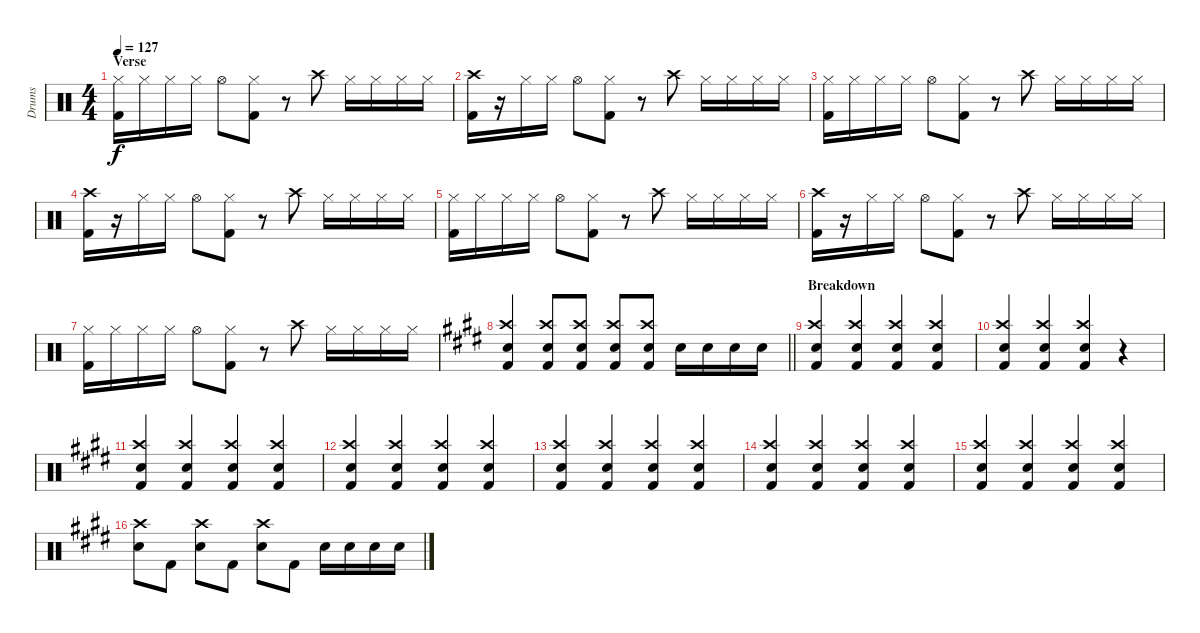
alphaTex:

\track ("Drums" "Drums") {instrument percussion}
\staff {score}
\articulation defaults
\ts (4 4)
\section ("" "Verse")
\tempo 127
\clef neutral
\ks c
("Hi-Hat (closed)" "Kick (hit) 2").16{dy f} "Hi-Hat (closed)".16 "Hi-Hat (closed)".16 "Hi-Hat (closed)".16 "Hi-Hat (open)".8 ("Hi-Hat (closed)" "Kick (hit) 2").8 r.8 "Crash high (hit)".8 "Hi-Hat (closed)".16 "Hi-Hat (closed)".16 "Hi-Hat (closed)".16 "Hi-Hat (closed)".16 |
("Crash high (hit)" "Kick (hit) 2").16 r.16 "Hi-Hat (closed)".16 "Hi-Hat (closed)".16 "Hi-Hat (open)".8 ("Hi-Hat (closed)" "Kick (hit) 2").8 r.8 "Crash high (hit)".8 "Hi-Hat (closed)".16 "Hi-Hat (closed)".16 "Hi-Hat (closed)".16 "Hi-Hat (closed)".16 |
("Hi-Hat (closed)" "Kick (hit) 2").16 "Hi-Hat (closed)".16 "Hi-Hat (closed)".16 "Hi-Hat (closed)".16 "Hi-Hat (open)".8 ("Hi-Hat (closed)" "Kick (hit) 2").8 r.8 "Crash high (hit)".8 "Hi-Hat (closed)".16 "Hi-Hat (closed)".16 "Hi-Hat (closed)".16 "Hi-Hat (closed)".16 |
("Crash high (hit)" "Kick (hit) 2").16 r.16 "Hi-Hat (closed)".16 "Hi-Hat (closed)".16 "Hi-Hat (open)".8 ("Hi-Hat (closed)" "Kick (hit) 2").8 r.8 "Crash high (hit)".8 "Hi-Hat (closed)".16 "Hi-Hat (closed)".16 "Hi-Hat (closed)".16 "Hi-Hat (closed)".16 |
("Hi-Hat (closed)" "Kick (hit) 2").16 "Hi-Hat (closed)".16 "Hi-Hat (closed)".16 "Hi-Hat (closed)".16 "Hi-Hat (open)".8 ("Hi-Hat (closed)" "Kick (hit) 2").8 r.8 "Crash high (hit)".8 "Hi-Hat (closed)".16 "Hi-Hat (closed)".16 "Hi-Hat (closed)".16 "Hi-Hat (closed)".16 |
("Crash high (hit)" "Kick (hit) 2").16 r.16 "Hi-Hat (closed)".16 "Hi-Hat (closed)".16 "Hi-Hat (open)".8 ("Hi-Hat (closed)" "Kick (hit) 2").8 r.8 "Crash high (hit)".8 "Hi-Hat (closed)".16 "Hi-Hat (closed)".16 "Hi-Hat (closed)".16 "Hi-Hat (closed)".16 |
("Hi-Hat (closed)" "Kick (hit) 2").16 "Hi-Hat (closed)".16 "Hi-Hat (closed)".16 "Hi-Hat (closed)".16 "Hi-Hat (open)".8 ("Hi-Hat (closed)" "Kick (hit) 2").8 r.8 "Crash high (hit)".8 "Hi-Hat (closed)".16 "Hi-Hat (closed)".16 "Hi-Hat (closed)".16 "Hi-Hat (closed)".16 |
\barLineRight lightlight
\ks e
("Crash high (hit)" "Electric Snare (hit)" "Kick (hit) 2").4 ("Crash high (hit)" "Electric Snare (hit)" "Kick (hit) 2").8 ("Crash high (hit)" "Electric Snare (hit)" "Kick (hit) 2").8 ("Crash high (hit)" "Electric Snare (hit)" "Kick (hit) 2").8 ("Crash high (hit)" "Electric Snare (hit)" "Kick (hit) 2").8 "Electric Snare (hit)".16 "Electric Snare (hit)".16 "Electric Snare (hit)".16 "Electric Snare (hit)".16 |
\section ("" "Breakdown")
("Crash high (hit)" "Electric Snare (hit)" "Kick (hit) 2").4 ("Crash high (hit)" "Electric Snare (hit)" "Kick (hit) 2").4 ("Crash high (hit)" "Electric Snare (hit)" "Kick (hit) 2").4 ("Crash high (hit)" "Electric Snare (hit)" "Kick (hit) 2").4 |
("Crash high (hit)" "Electric Snare (hit)" "Kick (hit) 2").4 ("Crash high (hit)" "Electric Snare (hit)" "Kick (hit) 2").4 ("Crash high (hit)" "Electric Snare (hit)" "Kick (hit) 2").4 r.4 |
("Crash high (hit)" "Electric Snare (hit)" "Kick (hit) 2").4 ("Crash high (hit)" "Electric Snare (hit)" "Kick (hit) 2").4 ("Crash high (hit)" "Electric Snare (hit)" "Kick (hit) 2").4 ("Crash high (hit)" "Electric Snare (hit)" "Kick (hit) 2").4 |
("Crash high (hit)" "Electric Snare (hit)" "Kick (hit) 2").4 ("Crash high (hit)" "Electric Snare (hit)" "Kick (hit) 2").4 ("Crash high (hit)" "Electric Snare (hit)" "Kick (hit) 2").4 ("Crash high (hit)" "Electric Snare (hit)" "Kick (hit) 2").4 |
("Crash high (hit)" "Electric Snare (hit)" "Kick (hit) 2").4 ("Crash high (hit)" "Electric Snare (hit)" "Kick (hit) 2").4 ("Crash high (hit)" "Electric Snare (hit)" "Kick (hit) 2").4 ("Crash high (hit)" "Electric Snare (hit)" "Kick (hit) 2").4 |
("Crash high (hit)" "Electric Snare (hit)" "Kick (hit) 2").4 ("Crash high (hit)" "Electric Snare (hit)" "Kick (hit) 2").4 ("Crash high (hit)" "Electric Snare (hit)" "Kick (hit) 2").4 ("Crash high (hit)" "Electric Snare (hit)" "Kick (hit) 2").4 |
("Crash high (hit)" "Electric Snare (hit)" "Kick (hit) 2").4 ("Crash high (hit)" "Electric Snare (hit)" "Kick (hit) 2").4 ("Crash high (hit)" "Electric Snare (hit)" "Kick (hit) 2").4 ("Crash high (hit)" "Electric Snare (hit)" "Kick (hit) 2").4 |
("Crash high (hit)" "Electric Snare (hit)").8 "Kick (hit) 2".8 ("Crash high (hit)" "Electric Snare (hit)").8 "Kick (hit) 2".8 ("Crash high (hit)" "Electric Snare (hit)").8 "Kick (hit) 2".8 "Electric Snare (hit)".16 "Electric Snare (hit)".16 "Electric Snare (hit)".16 "Electric Snare (hit)".16
